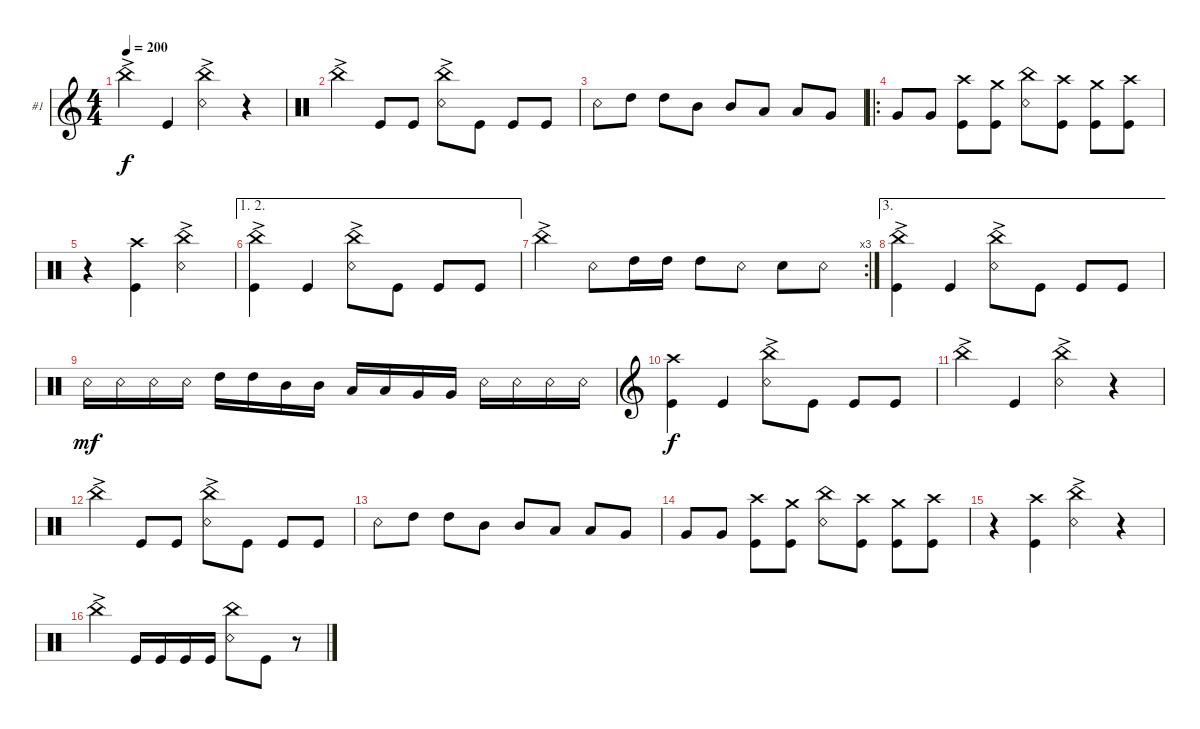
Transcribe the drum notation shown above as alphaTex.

\bracketExtendMode groupsimilarinstruments
\firstSystemTrackNameOrientation horizontal
\otherSystemsTrackNameOrientation horizontal
\track ("Joey Jordison" "#1") {instrument percussion}
\staff {score}
\articulation defaults
\ts (4 4)
\tempo 200
\clef g2
\ks c "China (hit)"{ac}.4{dy f} "Kick (hit)".4
("Snare (rim shot)" "China (hit)"{ac}).4 r.4 |
\clef neutral "China (hit)"{ac}.4 "Kick (hit)".8 "Kick (hit)".8
("Snare (rim shot)" "China (hit)"{ac}).8 "Kick (hit)".8 "Kick (hit)".8 "Kick (hit)".8 |
"Snare (rim shot)".8 "High Tom (hit)".8 "High Tom (hit)".8 "Mid Tom (hit)".8 "Mid Tom (hit)".8 "Low Tom (hit)".8 "Low Tom (hit)".8 "Very Low Tom (hit)".8 |
\ro "Very Low Tom (hit)".8 "Very Low Tom (hit)".8
("Kick (hit)" "Crash high (hit)").8 ("Kick (hit)" "Crash medium (hit)").8 ("Snare (rim shot)" "China (hit)").8 ("Kick (hit)" "Crash high (hit)").8 ("Kick (hit)" "Crash medium (hit)").8 ("Kick (hit)" "Crash high (hit)").8 |
r.4 ("Kick (hit)" "Crash high (hit)").4 ("Snare (rim shot)" "China (hit)"{ac}).4 |
\ae (1 2)
("Kick (hit)" "China (hit)"{ac}).4 "Kick (hit)".4 ("Snare (rim shot)" "China (hit)"{ac}).8 "Kick (hit)".8 "Kick (hit)".8 "Kick (hit)".8 |
\rc 3 "China (hit)"{ac}.4 "Snare (rim shot)".8 "High Tom (hit)".16 "High Tom (hit)".16 "High Tom (hit)".8 "Snare (rim shot)".8 "Snare (hit) 2".8 "Snare (rim shot)".8
|
\ae 3
("Kick (hit)" "China (hit)"{ac}).4 "Kick (hit)".4 ("Snare (rim shot)" "China (hit)"{ac}).8 "Kick (hit)".8 "Kick (hit)".8 "Kick (hit)".8 |
"Snare (rim shot)".16{dy mf} "Snare (rim shot)".16 "Snare (rim shot)".16 "Snare (rim shot)".16 "High Tom (hit)".16 "High Tom (hit)".16 "Mid Tom (hit)".16 "Mid Tom (hit)".16 "Low Tom (hit)".16 "Low Tom (hit)".16 "Very Low Tom (hit)".16 "Very Low Tom (hit)".16 "Snare (rim shot)".16 "Snare (rim shot)".16 "Snare (rim shot)".16 "Snare (rim shot)".16 |
\clef g2
("Kick (hit)" "Crash high (hit)").4{dy f} "Kick (hit)".4 ("Snare (rim shot)" "China (hit)"{ac}).8 "Kick (hit)".8 "Kick (hit)".8 "Kick (hit)".8 |
"China (hit)"{ac}.4 "Kick (hit)".4 ("Snare (rim shot)" "China (hit)"{ac}).4 r.4 |
\clef neutral "China (hit)"{ac}.4 "Kick (hit)".8 "Kick (hit)".8
("Snare (rim shot)" "China (hit)"{ac}).8 "Kick (hit)".8 "Kick (hit)".8 "Kick (hit)".8 |
"Snare (rim shot)".8 "High Tom (hit)".8 "High Tom (hit)".8 "Mid Tom (hit)".8 "Mid Tom (hit)".8 "Low Tom (hit)".8 "Low Tom (hit)".8 "Very Low Tom (hit)".8 |
"Very Low Tom (hit)".8 "Very Low Tom (hit)".8 ("Kick (hit)" "Crash high (hit)").8 ("Kick (hit)" "Crash medium (hit)").8 ("Snare (rim shot)" "China (hit)").8 ("Kick (hit)" "Crash high (hit)").8 ("Kick (hit)" "Crash medium (hit)").8 ("Kick (hit)" "Crash high (hit)").8 |
r.4 ("Kick (hit)" "Crash high (hit)").4 ("Snare (rim shot)" "China (hit)"{ac}).4 r.4 |
"China (hit)"{ac}.4 "Kick (hit)".16 "Kick (hit)".16 "Kick (hit)".16 "Kick (hit)".16 ("Snare (rim shot)" "China (hit)").8 "Kick (hit)".8 r.8
